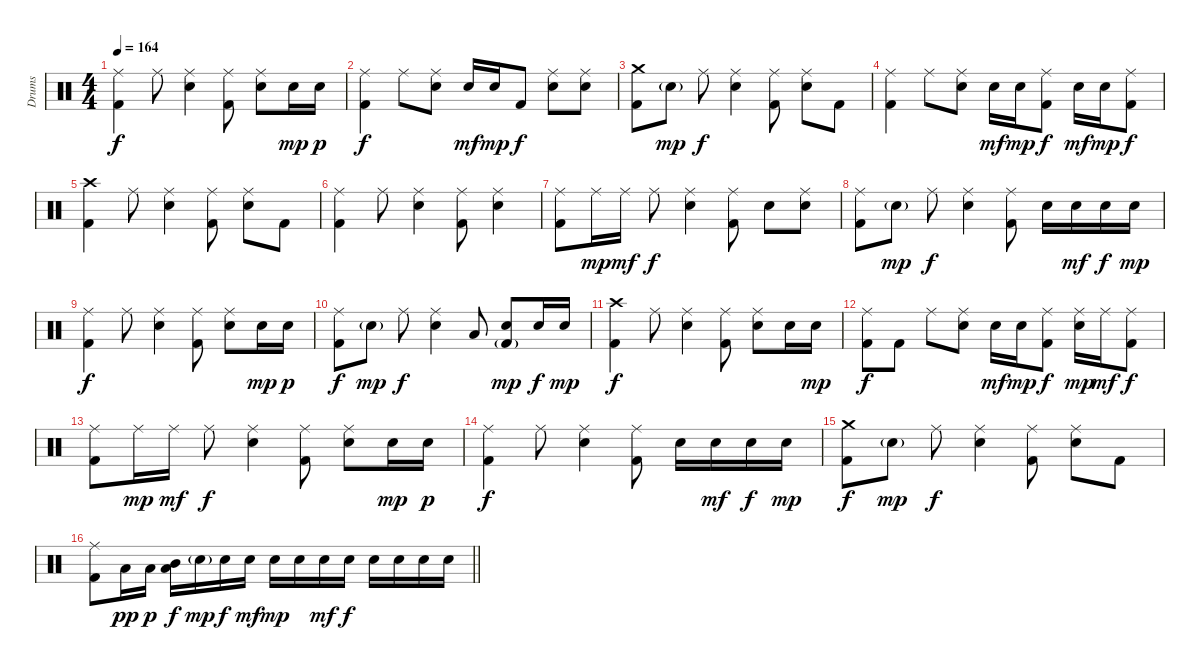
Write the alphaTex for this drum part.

\track ("Drums" "Drums") {instrument percussion}
\staff {score}
\articulation defaults
\ts (4 4)
\tempo 164
\clef neutral
\ks c
("Ride (middle)" "Kick (hit) 2").4{dy f} "Ride (middle)".8 ("Ride (middle)" "Electric Snare (hit)").4 ("Ride (middle)" "Kick (hit) 2").8 ("Ride (middle)" "Electric Snare (hit)").8 "Electric Snare (hit)".16{dy mp} "Electric Snare (hit)".16{dy p} |
("Ride (middle)" "Kick (hit) 2").4{dy f} "Ride (middle)".8 ("Ride (middle)" "Electric Snare (hit)").8 "Electric Snare (hit)".16{dy mf} "Electric Snare (hit)".16{dy mp} "Kick (hit) 2".8{dy f} ("Ride (middle)" "Electric Snare (hit)").8 ("Ride (middle)" "Electric Snare (hit)").8 |
("Crash medium (hit)" "Kick (hit) 2").8 "Electric Snare (hit)"{g}.8{dy mp} "Ride (middle)".8{dy f} ("Ride (middle)" "Electric Snare (hit)").4 ("Ride (middle)" "Kick (hit) 2").8 ("Ride (middle)" "Electric Snare (hit)").8 "Kick (hit) 2".8 |
("Ride (middle)" "Kick (hit) 2").4 "Ride (middle)".8 ("Ride (middle)" "Electric Snare (hit)").8 "Electric Snare (hit)".16{dy mf} "Electric Snare (hit)".16{dy mp} ("Ride (middle)" "Kick (hit) 2").8{dy f} "Electric Snare (hit)".16{dy mf} "Electric Snare (hit)".16{dy mp} ("Ride (middle)" "Kick (hit) 2").8{dy f} |
("Crash high (hit)" "Kick (hit) 2").4 "Ride (middle)".8 ("Ride (middle)" "Electric Snare (hit)").4 ("Ride (middle)" "Kick (hit) 2").8 ("Ride (middle)" "Electric Snare (hit)").8 "Kick (hit) 2".8 |
("Ride (middle)" "Kick (hit) 2").4 "Ride (middle)".8 ("Ride (middle)" "Electric Snare (hit)").4 ("Ride (middle)" "Kick (hit) 2").8 ("Ride (middle)" "Electric Snare (hit)").4 |
("Ride (middle)" "Kick (hit) 2").8 "Ride (middle)".16{dy mp} "Ride (middle)".16{dy mf} "Ride (middle)".8{dy f} ("Ride (middle)" "Electric Snare (hit)").4 ("Ride (middle)" "Kick (hit) 2").8 "Electric Snare (hit)".8 ("Ride (middle)" "Electric Snare (hit)").8 |
("Ride (middle)" "Kick (hit) 2").8 "Electric Snare (hit)"{g}.8{dy mp} "Ride (middle)".8{dy f} ("Ride (middle)" "Electric Snare (hit)").4 ("Ride (middle)" "Kick (hit) 2").8 "Electric Snare (hit)".16 "Electric Snare (hit)".16{dy mf} "Electric Snare (hit)".16{dy f} "Electric Snare (hit)".16{dy mp} |
("Ride (middle)" "Kick (hit) 2").4{dy f} "Ride (middle)".8 ("Ride (middle)" "Electric Snare (hit)").4 ("Ride (middle)" "Kick (hit) 2").8 ("Ride (middle)" "Electric Snare (hit)").8 "Electric Snare (hit)".16{dy mp} "Electric Snare (hit)".16{dy p} |
("Ride (middle)" "Kick (hit) 2").8{dy f} "Electric Snare (hit)"{g}.8{dy mp} "Ride (middle)".8{dy f} ("Ride (middle)" "Electric Snare (hit)").4 "Low Tom (hit)".8 ("Electric Snare (hit)" "Kick (hit) 2"{g}).8{dy mp} "Electric Snare (hit)".16{dy f} "Electric Snare (hit)".16{dy mp} |
("Crash high (hit)" "Kick (hit) 2").4{dy f} "Ride (middle)".8 ("Ride (middle)" "Electric Snare (hit)").4 ("Ride (middle)" "Kick (hit) 2").8 ("Ride (middle)" "Electric Snare (hit)").8 "Electric Snare (hit)".16 "Electric Snare (hit)".16{dy mp} |
("Ride (middle)" "Kick (hit) 2").8{dy f} "Kick (hit) 2".8 "Ride (middle)".8 ("Ride (middle)" "Electric Snare (hit)").8 "Electric Snare (hit)".16{dy mf} "Electric Snare (hit)".16{dy mp} ("Ride (middle)" "Kick (hit) 2").8{dy f} ("Ride (middle)" "Electric Snare (hit)").16{dy mp} "Ride (middle)".16{dy mf} ("Ride (middle)" "Kick (hit) 2").8{dy f} |
("Ride (middle)" "Kick (hit) 2").8 "Ride (middle)".16{dy mp} "Ride (middle)".16{dy mf} "Ride (middle)".8{dy f} ("Ride (middle)" "Electric Snare (hit)").4 ("Ride (middle)" "Kick (hit) 2").8 ("Ride (middle)" "Electric Snare (hit)").8 "Electric Snare (hit)".16{dy mp} "Electric Snare (hit)".16{dy p} |
("Ride (middle)" "Kick (hit) 2").4{dy f} "Ride (middle)".8 ("Ride (middle)" "Electric Snare (hit)").4 ("Ride (middle)" "Kick (hit) 2").8 "Electric Snare (hit)".16 "Electric Snare (hit)".16{dy mf} "Electric Snare (hit)".16{dy f} "Electric Snare (hit)".16{dy mp} |
("Crash medium (hit)" "Kick (hit) 2").8{dy f} "Electric Snare (hit)"{g}.8{dy mp} "Ride (middle)".8{dy f} ("Ride (middle)" "Electric Snare (hit)").4 ("Ride (middle)" "Kick (hit) 2").8 ("Ride (middle)" "Electric Snare (hit)").8 "Kick (hit) 2".8 |
\barLineRight lightlight
("Ride (middle)" "Kick (hit) 2").8 "Low Tom (hit)".16{dy pp} "Low Tom (hit)".16{dy p} ("Mid Tom (hit)" "Low Tom (hit)").16{dy f} "Electric Snare (hit)"{g}.16{dy mp} "Electric Snare (hit)".16{dy f} "Electric Snare (hit)".16{dy mf} "Electric Snare (hit)".16{dy mp} "Electric Snare (hit)".16 "Electric Snare (hit)".16{dy mf} "Electric Snare (hit)".16{dy f} "Electric Snare (hit)".16 "Electric Snare (hit)".16 "Electric Snare (hit)".16 "Electric Snare (hit)".16
